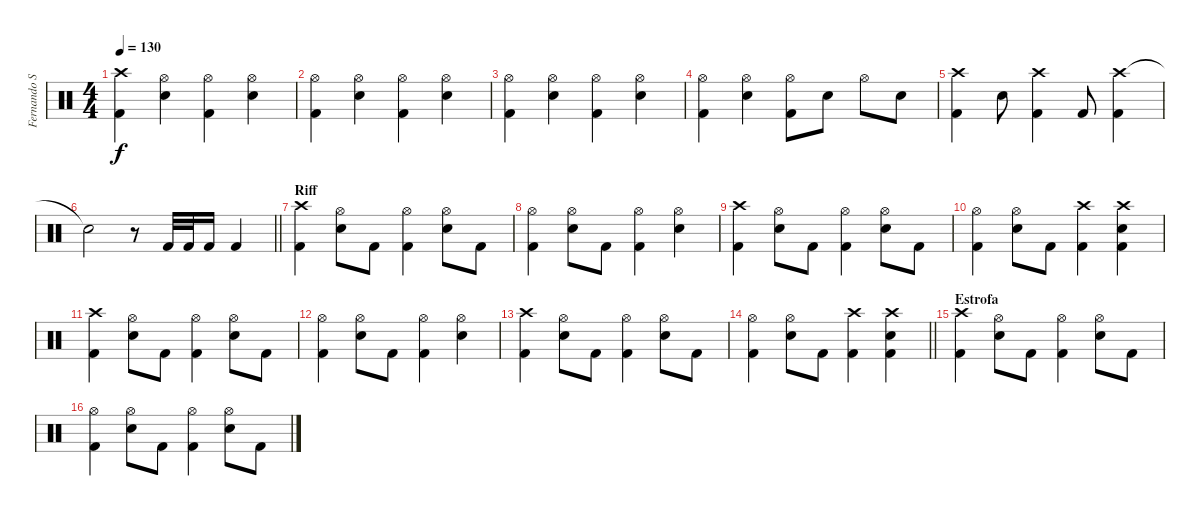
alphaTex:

\track ("Fernando Scarcella" "Fernando S") {instrument percussion}
\staff {score}
\articulation defaults
\ts (4 4)
\tempo 130
\clef neutral
\ks c
("Crash high (hit)" "Kick (hit) 2").4{dy f} ("Hi-Hat (open)" "Snare (hit) 2").4 ("Hi-Hat (open)" "Kick (hit) 2").4 ("Hi-Hat (open)" "Snare (hit) 2").4 |
("Hi-Hat (open)" "Kick (hit) 2").4 ("Hi-Hat (open)" "Snare (hit) 2").4 ("Hi-Hat (open)" "Kick (hit) 2").4 ("Hi-Hat (open)" "Snare (hit) 2").4 |
("Hi-Hat (open)" "Kick (hit) 2").4 ("Hi-Hat (open)" "Snare (hit) 2").4 ("Hi-Hat (open)" "Kick (hit) 2").4 ("Hi-Hat (open)" "Snare (hit) 2").4 |
("Hi-Hat (open)" "Kick (hit) 2").4 ("Hi-Hat (open)" "Snare (hit) 2").4 ("Hi-Hat (open)" "Kick (hit) 2").8 "Snare (hit) 2".8 "Hi-Hat (open)".8 "Snare (hit) 2".8 |
("Crash high (hit)" "Kick (hit) 2").4 "Snare (hit) 2".8 ("Crash high (hit)" "Kick (hit) 2").4 "Kick (hit) 2".8 ("Crash high (hit)" "Kick (hit) 2").4 |
\barLineRight lightlight "Snare (hit)"{t}.2
r.8 "Kick (hit) 2".32 "Kick (hit) 2".32 "Kick (hit) 2".16 "Kick (hit) 2".4 |
\section ("" "Riff")
("Crash high (hit)" "Kick (hit) 2").4 ("Hi-Hat (open)" "Snare (hit) 2").8 "Kick (hit) 2".8 ("Hi-Hat (open)" "Kick (hit) 2").4 ("Hi-Hat (open)" "Snare (hit) 2").8 "Kick (hit) 2".8 |
("Hi-Hat (open)" "Kick (hit) 2").4 ("Hi-Hat (open)" "Snare (hit) 2").8 "Kick (hit) 2".8 ("Hi-Hat (open)" "Kick (hit) 2").4 ("Hi-Hat (open)" "Snare (hit) 2").4 |
("Crash high (hit)" "Kick (hit) 2").4 ("Hi-Hat (open)" "Snare (hit) 2").8 "Kick (hit) 2".8 ("Hi-Hat (open)" "Kick (hit) 2").4 ("Hi-Hat (open)" "Snare (hit) 2").8 "Kick (hit) 2".8 |
("Hi-Hat (open)" "Kick (hit) 2").4 ("Hi-Hat (open)" "Snare (hit) 2").8 "Kick (hit) 2".8 ("Crash high (hit)" "Kick (hit) 2").4 ("Crash high (hit)" "Snare (hit) 2" "Kick (hit) 2").4 |
("Crash high (hit)" "Kick (hit) 2").4 ("Hi-Hat (open)" "Snare (hit) 2").8 "Kick (hit) 2".8 ("Hi-Hat (open)" "Kick (hit) 2").4 ("Hi-Hat (open)" "Snare (hit) 2").8 "Kick (hit) 2".8 |
("Hi-Hat (open)" "Kick (hit) 2").4 ("Hi-Hat (open)" "Snare (hit) 2").8 "Kick (hit) 2".8 ("Hi-Hat (open)" "Kick (hit) 2").4 ("Hi-Hat (open)" "Snare (hit) 2").4 |
("Crash high (hit)" "Kick (hit) 2").4 ("Hi-Hat (open)" "Snare (hit) 2").8 "Kick (hit) 2".8 ("Hi-Hat (open)" "Kick (hit) 2").4 ("Hi-Hat (open)" "Snare (hit) 2").8 "Kick (hit) 2".8 |
\barLineRight lightlight
("Hi-Hat (open)" "Kick (hit) 2").4 ("Hi-Hat (open)" "Snare (hit) 2").8 "Kick (hit) 2".8 ("Crash high (hit)" "Kick (hit) 2").4 ("Crash high (hit)" "Snare (hit) 2" "Kick (hit) 2").4 |
\section ("" "Estrofa")
("Crash high (hit)" "Kick (hit) 2").4 ("Hi-Hat (open)" "Snare (hit) 2").8 "Kick (hit) 2".8 ("Hi-Hat (open)" "Kick (hit) 2").4 ("Hi-Hat (open)" "Snare (hit) 2").8 "Kick (hit) 2".8 |
("Hi-Hat (open)" "Kick (hit) 2").4 ("Hi-Hat (open)" "Snare (hit) 2").8 "Kick (hit) 2".8 ("Hi-Hat (open)" "Kick (hit) 2").4 ("Hi-Hat (open)" "Snare (hit) 2").8 "Kick (hit) 2".8
